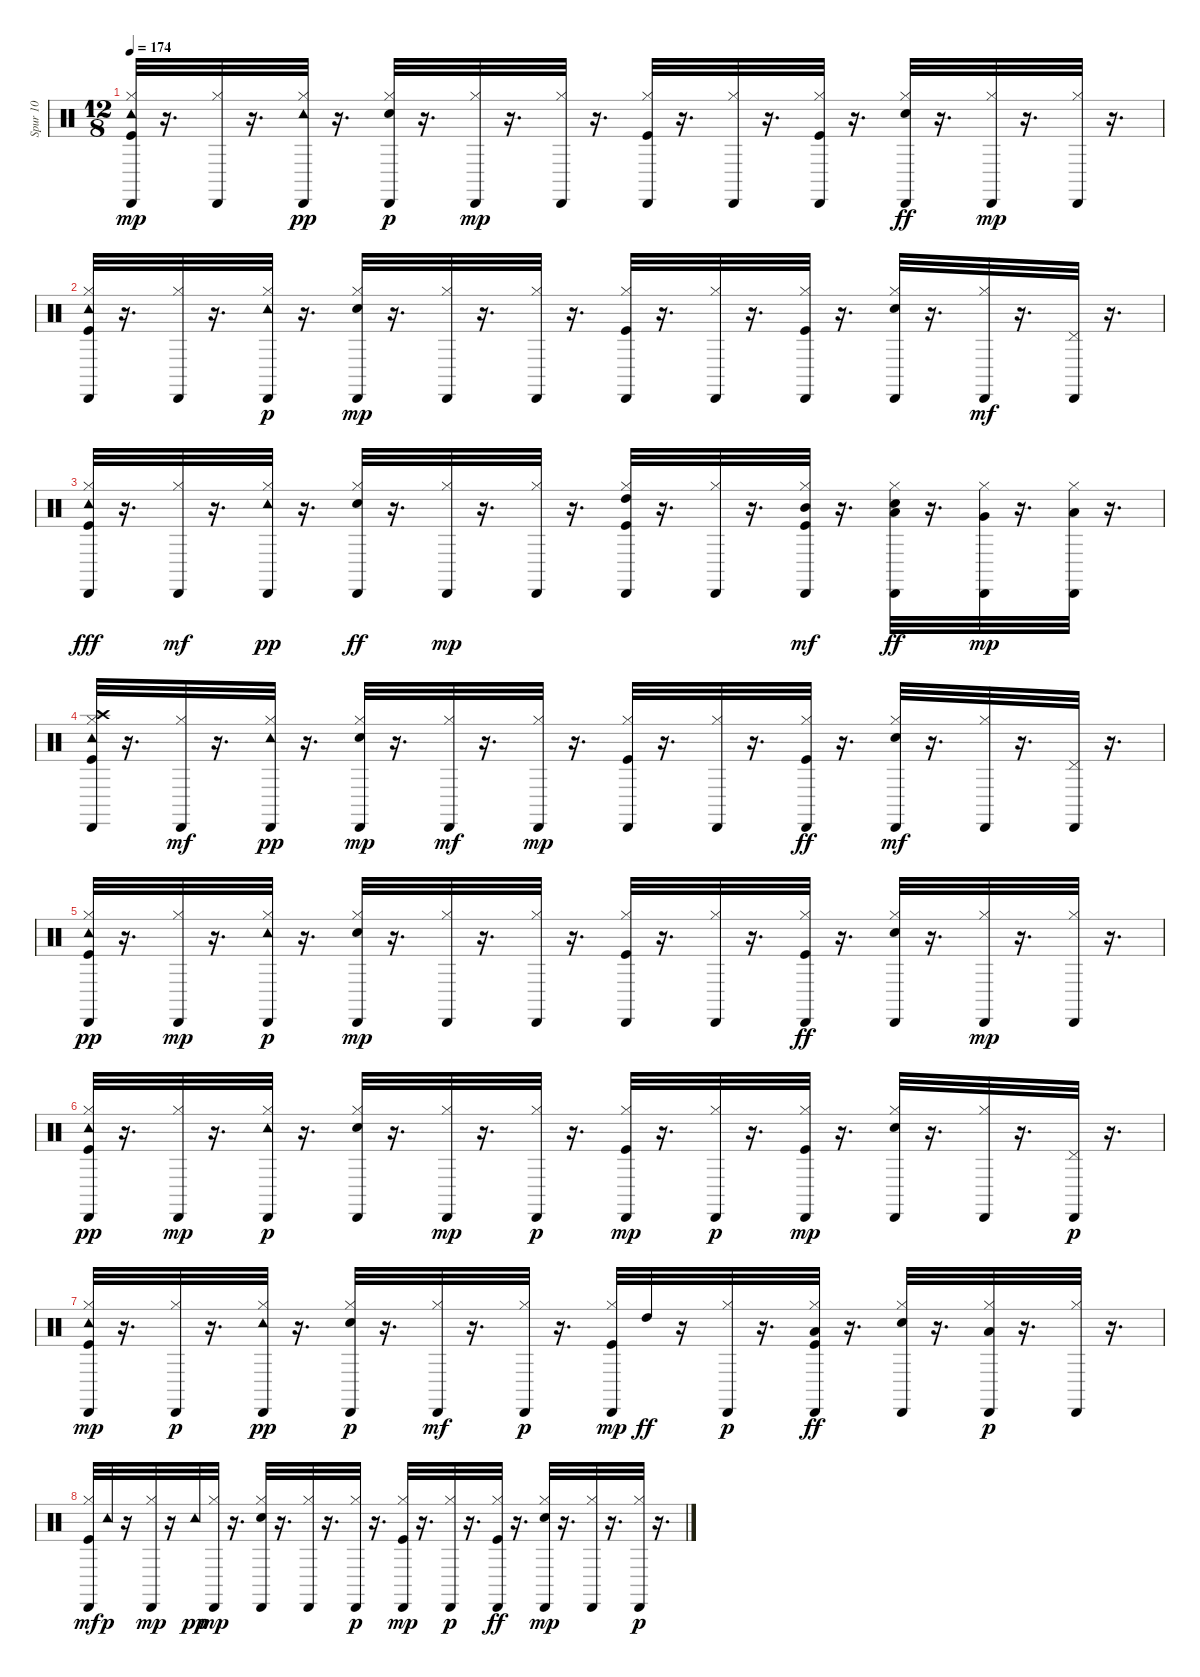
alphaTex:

\track ("Spur 10" "Spur 10") {instrument percussion}
\staff {score}
\articulation defaults
\ts (12 8)
\tempo 174
\clef neutral
\ks c
("Tambourine (hit)" "Hi-Hat (closed)" "Cabasa (hit)" "Kick (hit)").32{dy mp} r.16{d} ("Hi-Hat (closed)" "Cabasa (hit)").32 r.16{d} ("Hi-Hat (closed)" "Cabasa (hit)" "Tambourine (hit)").32{dy pp} r.16{d} ("Hi-Hat (closed)" "Electric Snare (hit)" "Cabasa (hit)").32{dy p} r.16{d} ("Hi-Hat (closed)" "Cabasa (hit)").32{dy mp} r.16{d} ("Hi-Hat (closed)" "Cabasa (hit)").32 r.16{d} ("Kick (hit)" "Cabasa (hit)" "Hi-Hat (closed)").32 r.16{d} ("Cabasa (hit)" "Hi-Hat (closed)").32 r.16{d} ("Hi-Hat (closed)" "Kick (hit)" "Cabasa (hit)").32 r.16{d} ("Hi-Hat (closed)" "Cabasa (hit)" "Electric Snare (hit)").32{dy ff} r.16{d} ("Hi-Hat (closed)" "Cabasa (hit)").32{dy mp} r.16{d} ("Hi-Hat (closed)" "Cabasa (hit)").32 r.16{d} |
("Tambourine (hit)" "Kick (hit)" "Cabasa (hit)" "Hi-Hat (closed)").32 r.16{d} ("Cabasa (hit)" "Hi-Hat (closed)").32 r.16{d} ("Hi-Hat (closed)" "Tambourine (hit)" "Cabasa (hit)").32{dy p} r.16{d} ("Hi-Hat (closed)" "Electric Snare (hit)" "Cabasa (hit)").32{dy mp} r.16{d} ("Hi-Hat (closed)" "Cabasa (hit)").32 r.16{d} ("Hi-Hat (closed)" "Cabasa (hit)").32 r.16{d} ("Kick (hit)" "Hi-Hat (closed)" "Cabasa (hit)").32 r.16{d} ("Cabasa (hit)" "Hi-Hat (closed)").32 r.16{d} ("Hi-Hat (closed)" "Kick (hit)" "Cabasa (hit)").32 r.16{d} ("Hi-Hat (closed)" "Electric Snare (hit)" "Cabasa (hit)").32 r.16{d} ("Cabasa (hit)" "Hi-Hat (closed)").32{dy mf} r.16{d} ("Cabasa (hit)" "Pedal Hi-Hat (hit)").32 r.16{d} |
("Tambourine (hit)" "Cabasa (hit)" "Hi-Hat (closed)" "Kick (hit)").32{dy fff} r.16{d} ("Cabasa (hit)" "Hi-Hat (closed)").32{dy mf} r.16{d} ("Hi-Hat (closed)" "Cabasa (hit)" "Tambourine (hit)").32{dy pp} r.16{d} ("Hi-Hat (closed)" "Cabasa (hit)" "Electric Snare (hit)").32{dy ff} r.16{d} ("Hi-Hat (closed)" "Cabasa (hit)").32{dy mp} r.16{d} ("Hi-Hat (closed)" "Cabasa (hit)").32 r.16{d} ("Kick (hit)" "High Tom (hit)" "Cabasa (hit)" "Hi-Hat (closed)").32 r.16{d} ("Hi-Hat (closed)" "Cabasa (hit)").32 r.16{d} ("Mid Tom (hit)" "Cabasa (hit)" "Hi-Hat (closed)" "Kick (hit)").32{dy mf} r.16{d} ("Low Tom (hit)" "Cabasa (hit)" "Hi-Hat (closed)" "Electric Snare (hit)").32{dy ff} r.16{d} ("Hi-Hat (closed)" "Very Low Tom (hit)" "Cabasa (hit)").32{dy mp} r.16{d} ("Hi-Hat (closed)" "Low Floor Tom (hit)" "Cabasa (hit)").32 r.16{d} |
("Hi-Hat (closed)" "Kick (hit)" "Cabasa (hit)" "Tambourine (hit)" "Crash high (hit)").32 r.16{d} ("Cabasa (hit)" "Hi-Hat (closed)").32{dy mf} r.16{d} ("Hi-Hat (closed)" "Cabasa (hit)" "Tambourine (hit)").32{dy pp} r.16{d} ("Hi-Hat (closed)" "Electric Snare (hit)" "Cabasa (hit)").32{dy mp} r.16{d} ("Cabasa (hit)" "Hi-Hat (closed)").32{dy mf} r.16{d} ("Hi-Hat (closed)" "Cabasa (hit)").32{dy mp} r.16{d} ("Cabasa (hit)" "Kick (hit)" "Hi-Hat (closed)").32 r.16{d} ("Cabasa (hit)" "Hi-Hat (closed)").32 r.16{d} ("Cabasa (hit)" "Hi-Hat (closed)" "Kick (hit)").32{dy ff} r.16{d} ("Cabasa (hit)" "Electric Snare (hit)" "Hi-Hat (closed)").32{dy mf} r.16{d} ("Cabasa (hit)" "Hi-Hat (closed)").32 r.16{d} ("Cabasa (hit)" "Pedal Hi-Hat (hit)").32 r.16{d} |
("Kick (hit)" "Cabasa (hit)" "Hi-Hat (closed)" "Tambourine (hit)").32{dy pp} r.16{d} ("Hi-Hat (closed)" "Cabasa (hit)").32{dy mp} r.16{d} ("Hi-Hat (closed)" "Cabasa (hit)" "Tambourine (hit)").32{dy p} r.16{d} ("Hi-Hat (closed)" "Electric Snare (hit)" "Cabasa (hit)").32{dy mp} r.16{d} ("Hi-Hat (closed)" "Cabasa (hit)").32 r.16{d} ("Hi-Hat (closed)" "Cabasa (hit)").32 r.16{d} ("Hi-Hat (closed)" "Kick (hit)" "Cabasa (hit)").32 r.16{d} ("Hi-Hat (closed)" "Cabasa (hit)").32 r.16{d} ("Hi-Hat (closed)" "Cabasa (hit)" "Kick (hit)").32{dy ff} r.16{d} ("Hi-Hat (closed)" "Cabasa (hit)" "Electric Snare (hit)").32 r.16{d} ("Hi-Hat (closed)" "Cabasa (hit)").32{dy mp} r.16{d} ("Hi-Hat (closed)" "Cabasa (hit)").32 r.16{d} |
("Hi-Hat (closed)" "Kick (hit)" "Cabasa (hit)" "Tambourine (hit)").32{dy pp} r.16{d} ("Hi-Hat (closed)" "Cabasa (hit)").32{dy mp} r.16{d} ("Hi-Hat (closed)" "Cabasa (hit)" "Tambourine (hit)").32{dy p} r.16{d} ("Hi-Hat (closed)" "Electric Snare (hit)" "Cabasa (hit)").32 r.16{d} ("Hi-Hat (closed)" "Cabasa (hit)").32{dy mp} r.16{d} ("Hi-Hat (closed)" "Cabasa (hit)").32{dy p} r.16{d} ("Hi-Hat (closed)" "Kick (hit)" "Cabasa (hit)").32{dy mp} r.16{d} ("Hi-Hat (closed)" "Cabasa (hit)").32{dy p} r.16{d} ("Hi-Hat (closed)" "Kick (hit)" "Cabasa (hit)").32{dy mp} r.16{d} ("Hi-Hat (closed)" "Electric Snare (hit)" "Cabasa (hit)").32 r.16{d} ("Hi-Hat (closed)" "Cabasa (hit)").32 r.16{d} ("Pedal Hi-Hat (hit)" "Cabasa (hit)").32{dy p} r.16{d} |
("Tambourine (hit)" "Hi-Hat (closed)" "Kick (hit)" "Cabasa (hit)").32{dy mp} r.16{d} ("Hi-Hat (closed)" "Cabasa (hit)").32{dy p} r.16{d} ("Hi-Hat (closed)" "Cabasa (hit)" "Tambourine (hit)").32{dy pp} r.16{d} ("Hi-Hat (closed)" "Electric Snare (hit)" "Cabasa (hit)").32{dy p} r.16{d} ("Cabasa (hit)" "Hi-Hat (closed)").32{dy mf} r.16{d} ("Hi-Hat (closed)" "Cabasa (hit)").32{dy p} r.16{d} ("Kick (hit)" "Cabasa (hit)" "Hi-Hat (closed)").32{dy mp} "High Tom (hit)".32{dy ff} r.16 ("Hi-Hat (closed)" "Cabasa (hit)").32{dy p} r.16{d} ("Hi-Hat (closed)" "Cabasa (hit)" "Kick (hit)" "Low Tom (hit)").32{dy ff} r.16{d} ("Hi-Hat (closed)" "Cabasa (hit)" "Electric Snare (hit)").32 r.16{d} ("Low Floor Tom (hit)" "Hi-Hat (closed)" "Cabasa (hit)").32{dy p} r.16{d} ("Hi-Hat (closed)" "Cabasa (hit)").32 r.16{d} |
("Kick (hit)" "Cabasa (hit)" "Hi-Hat (closed)").32{dy mf} "Tambourine (hit)".32{dy p} r.16 ("Cabasa (hit)" "Hi-Hat (closed)").32{dy mp} r.16 "Tambourine (hit)".32{dy pp} ("Cabasa (hit)" "Hi-Hat (closed)").32{dy mp} r.16{d} ("Cabasa (hit)" "Electric Snare (hit)" "Hi-Hat (closed)").32 r.16{d} ("Cabasa (hit)" "Hi-Hat (closed)").32 r.16{d} ("Cabasa (hit)" "Hi-Hat (closed)").32{dy p} r.16{d} ("Hi-Hat (closed)" "Kick (hit)" "Cabasa (hit)").32{dy mp} r.16{d} ("Hi-Hat (closed)" "Cabasa (hit)").32{dy p} r.16{d} ("Hi-Hat (closed)" "Cabasa (hit)" "Kick (hit)").32{dy ff} r.16{d} ("Hi-Hat (closed)" "Electric Snare (hit)" "Cabasa (hit)").32{dy mp} r.16{d} ("Hi-Hat (closed)" "Cabasa (hit)").32 r.16{d} ("Hi-Hat (closed)" "Cabasa (hit)").32{dy p} r.16{d}
